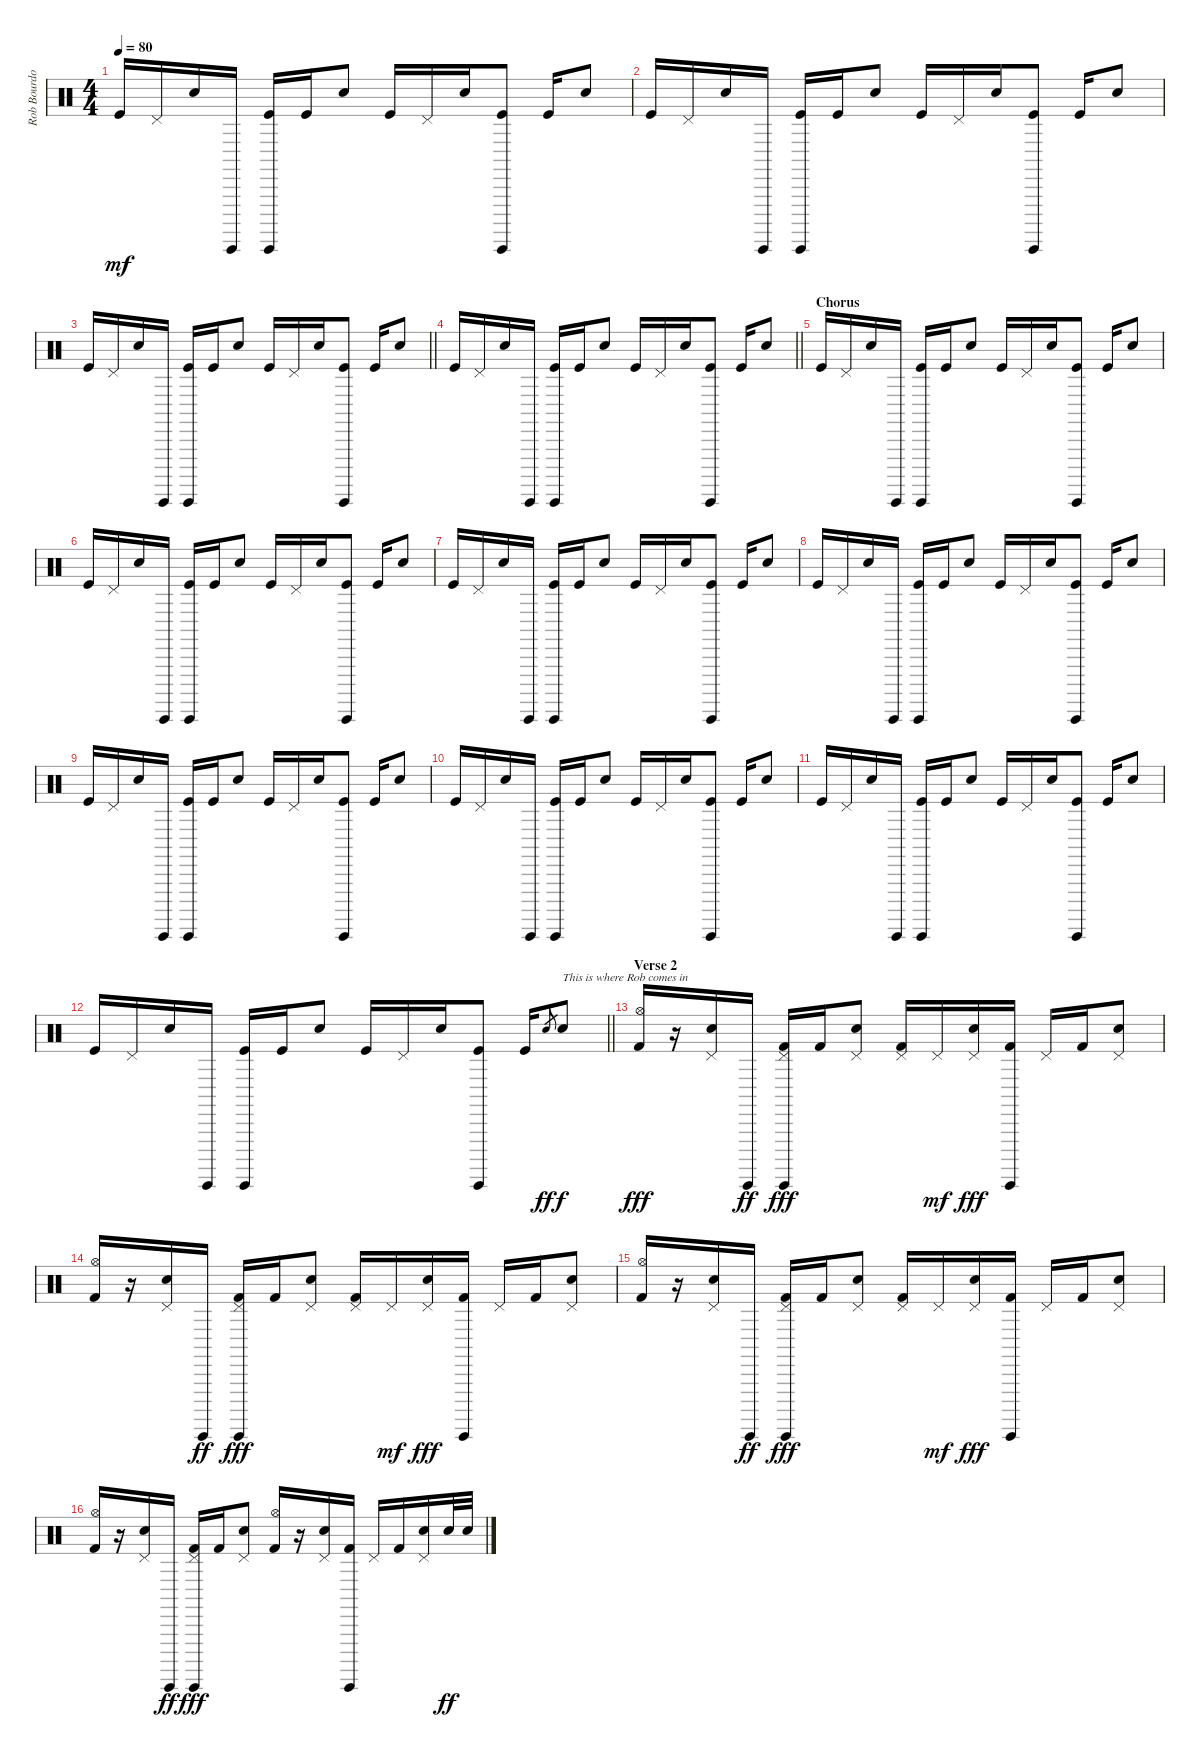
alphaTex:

\track ("Rob Bourdon (Batteria)" "Rob Bourdo") {instrument percussion}
\staff {score}
\articulation defaults
\ts (4 4)
\tempo 80
\clef neutral
\ks c "Kick (hit)".16{dy mf} "Pedal Hi-Hat (hit)".16 "Snare (hit) 2".16 "Guiro (hit)".16
("Guiro (hit)" "Kick (hit)").16 "Kick (hit)".16 "Snare (hit) 2".8 "Kick (hit)".16 "Pedal Hi-Hat (hit)".16 "Snare (hit) 2".16 ("Guiro (hit)" "Kick (hit)").8 "Kick (hit)".16 "Snare (hit) 2".8 |
"Kick (hit)".16 "Pedal Hi-Hat (hit)".16 "Snare (hit) 2".16 "Guiro (hit)".16 ("Guiro (hit)" "Kick (hit)").16 "Kick (hit)".16 "Snare (hit) 2".8 "Kick (hit)".16 "Pedal Hi-Hat (hit)".16 "Snare (hit) 2".16 ("Guiro (hit)" "Kick (hit)").8 "Kick (hit)".16 "Snare (hit) 2".8 |
\barLineRight lightlight "Kick (hit)".16 "Pedal Hi-Hat (hit)".16 "Snare (hit) 2".16 "Guiro (hit)".16
("Guiro (hit)" "Kick (hit)").16 "Kick (hit)".16 "Snare (hit) 2".8 "Kick (hit)".16 "Pedal Hi-Hat (hit)".16 "Snare (hit) 2".16 ("Guiro (hit)" "Kick (hit)").8 "Kick (hit)".16 "Snare (hit) 2".8 |
\barLineRight lightlight "Kick (hit)".16 "Pedal Hi-Hat (hit)".16 "Snare (hit) 2".16 "Guiro (hit)".16
("Guiro (hit)" "Kick (hit)").16 "Kick (hit)".16 "Snare (hit) 2".8 "Kick (hit)".16 "Pedal Hi-Hat (hit)".16 "Snare (hit) 2".16 ("Guiro (hit)" "Kick (hit)").8 "Kick (hit)".16 "Snare (hit) 2".8 |
\section ("" "Chorus")
"Kick (hit)".16 "Pedal Hi-Hat (hit)".16 "Snare (hit) 2".16 "Guiro (hit)".16 ("Guiro (hit)" "Kick (hit)").16 "Kick (hit)".16 "Snare (hit) 2".8 "Kick (hit)".16 "Pedal Hi-Hat (hit)".16 "Snare (hit) 2".16 ("Guiro (hit)" "Kick (hit)").8 "Kick (hit)".16 "Snare (hit) 2".8 |
"Kick (hit)".16 "Pedal Hi-Hat (hit)".16 "Snare (hit) 2".16 "Guiro (hit)".16 ("Guiro (hit)" "Kick (hit)").16 "Kick (hit)".16 "Snare (hit) 2".8 "Kick (hit)".16 "Pedal Hi-Hat (hit)".16 "Snare (hit) 2".16 ("Guiro (hit)" "Kick (hit)").8 "Kick (hit)".16 "Snare (hit) 2".8 |
"Kick (hit)".16 "Pedal Hi-Hat (hit)".16 "Snare (hit) 2".16 "Guiro (hit)".16 ("Guiro (hit)" "Kick (hit)").16 "Kick (hit)".16 "Snare (hit) 2".8 "Kick (hit)".16 "Pedal Hi-Hat (hit)".16 "Snare (hit) 2".16 ("Guiro (hit)" "Kick (hit)").8 "Kick (hit)".16 "Snare (hit) 2".8 |
"Kick (hit)".16 "Pedal Hi-Hat (hit)".16 "Snare (hit) 2".16 "Guiro (hit)".16 ("Guiro (hit)" "Kick (hit)").16 "Kick (hit)".16 "Snare (hit) 2".8 "Kick (hit)".16 "Pedal Hi-Hat (hit)".16 "Snare (hit) 2".16 ("Guiro (hit)" "Kick (hit)").8 "Kick (hit)".16 "Snare (hit) 2".8 |
"Kick (hit)".16 "Pedal Hi-Hat (hit)".16 "Snare (hit) 2".16 "Guiro (hit)".16 ("Guiro (hit)" "Kick (hit)").16 "Kick (hit)".16 "Snare (hit) 2".8 "Kick (hit)".16 "Pedal Hi-Hat (hit)".16 "Snare (hit) 2".16 ("Guiro (hit)" "Kick (hit)").8 "Kick (hit)".16 "Snare (hit) 2".8 |
"Kick (hit)".16 "Pedal Hi-Hat (hit)".16 "Snare (hit) 2".16 "Guiro (hit)".16 ("Guiro (hit)" "Kick (hit)").16 "Kick (hit)".16 "Snare (hit) 2".8 "Kick (hit)".16 "Pedal Hi-Hat (hit)".16 "Snare (hit) 2".16 ("Guiro (hit)" "Kick (hit)").8 "Kick (hit)".16 "Snare (hit) 2".8 |
"Kick (hit)".16 "Pedal Hi-Hat (hit)".16 "Snare (hit) 2".16 "Guiro (hit)".16 ("Guiro (hit)" "Kick (hit)").16 "Kick (hit)".16 "Snare (hit) 2".8 "Kick (hit)".16 "Pedal Hi-Hat (hit)".16 "Snare (hit) 2".16 ("Guiro (hit)" "Kick (hit)").8 "Kick (hit)".16 "Snare (hit) 2".8 |
\barLineRight lightlight "Kick (hit)".16 "Pedal Hi-Hat (hit)".16 "Snare (hit) 2".16 "Guiro (hit)".16
("Guiro (hit)" "Kick (hit)").16 "Kick (hit)".16 "Snare (hit) 2".8 "Kick (hit)".16 "Pedal Hi-Hat (hit)".16 "Snare (hit) 2".16 ("Guiro (hit)" "Kick (hit)").8 "Kick (hit)".16 "Electric Snare (hit)"{h}.8{gr dy ff} "Electric Snare (hit)".8{txt "This is where Rob comes in" dy f} |
\section ("" "Verse 2")
("Hi-Hat (open)" "Kick (hit) 2").16{dy fff} r.16 ("Pedal Hi-Hat (hit)" "Electric Snare (hit)").16 "Guiro (hit)".16{dy ff} ("Guiro (hit)" "Pedal Hi-Hat (hit)" "Kick (hit) 2").16{dy fff} "Kick (hit) 2".16 ("Pedal Hi-Hat (hit)" "Electric Snare (hit)").8 ("Pedal Hi-Hat (hit)" "Kick (hit) 2").16 "Pedal Hi-Hat (hit)".16{dy mf} ("Pedal Hi-Hat (hit)" "Electric Snare (hit)").16{dy fff} ("Guiro (hit)" "Kick (hit) 2").16 "Pedal Hi-Hat (hit)".16 "Kick (hit) 2".16 ("Pedal Hi-Hat (hit)" "Electric Snare (hit)").8 |
("Hi-Hat (open)" "Kick (hit) 2").16 r.16 ("Pedal Hi-Hat (hit)" "Electric Snare (hit)").16 "Guiro (hit)".16{dy ff} ("Guiro (hit)" "Pedal Hi-Hat (hit)" "Kick (hit) 2").16{dy fff} "Kick (hit) 2".16 ("Pedal Hi-Hat (hit)" "Electric Snare (hit)").8 ("Pedal Hi-Hat (hit)" "Kick (hit) 2").16 "Pedal Hi-Hat (hit)".16{dy mf} ("Pedal Hi-Hat (hit)" "Electric Snare (hit)").16{dy fff} ("Guiro (hit)" "Kick (hit) 2").16 "Pedal Hi-Hat (hit)".16 "Kick (hit) 2".16 ("Pedal Hi-Hat (hit)" "Electric Snare (hit)").8 |
("Hi-Hat (open)" "Kick (hit) 2").16 r.16 ("Pedal Hi-Hat (hit)" "Electric Snare (hit)").16 "Guiro (hit)".16{dy ff} ("Guiro (hit)" "Pedal Hi-Hat (hit)" "Kick (hit) 2").16{dy fff} "Kick (hit) 2".16 ("Pedal Hi-Hat (hit)" "Electric Snare (hit)").8 ("Pedal Hi-Hat (hit)" "Kick (hit) 2").16 "Pedal Hi-Hat (hit)".16{dy mf} ("Pedal Hi-Hat (hit)" "Electric Snare (hit)").16{dy fff} ("Guiro (hit)" "Kick (hit) 2").16 "Pedal Hi-Hat (hit)".16 "Kick (hit) 2".16 ("Pedal Hi-Hat (hit)" "Electric Snare (hit)").8 |
("Hi-Hat (open)" "Kick (hit) 2").16 r.16 ("Pedal Hi-Hat (hit)" "Electric Snare (hit)").16 "Guiro (hit)".16{dy ff} ("Guiro (hit)" "Pedal Hi-Hat (hit)" "Kick (hit) 2").16{dy fff} "Kick (hit) 2".16 ("Pedal Hi-Hat (hit)" "Electric Snare (hit)").8 ("Hi-Hat (open)" "Kick (hit) 2").16 r.16 ("Pedal Hi-Hat (hit)" "Electric Snare (hit)").16 ("Guiro (hit)" "Kick (hit) 2").16 "Pedal Hi-Hat (hit)".16 "Kick (hit) 2".16 ("Pedal Hi-Hat (hit)" "Electric Snare (hit)").16 "Electric Snare (hit)".32{dy ff} "Electric Snare (hit)".32
